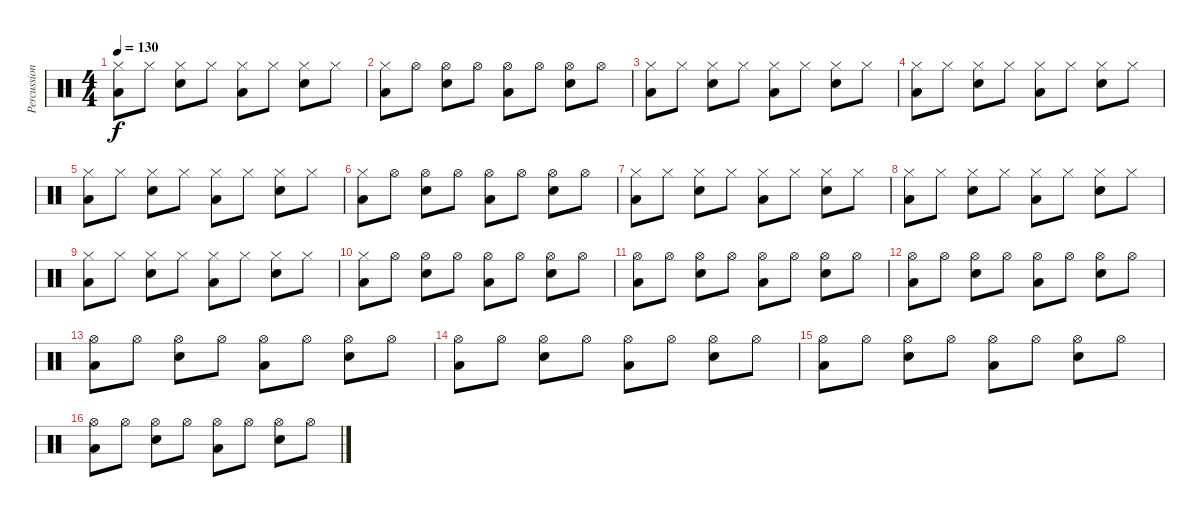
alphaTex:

\track ("Percussion" "Percussion") {instrument percussion}
\staff {score}
\articulation defaults
\ts (4 4)
\tempo 130
\clef neutral
\ks c
("Hi-Hat (closed)" "Low Floor Tom (hit)").8{dy f} "Hi-Hat (closed)".8 ("Hi-Hat (closed)" "Snare (hit) 2").8 "Hi-Hat (closed)".8 ("Hi-Hat (closed)" "Low Floor Tom (hit)").8 "Hi-Hat (closed)".8 ("Hi-Hat (closed)" "Snare (hit) 2").8 "Hi-Hat (closed)".8 |
("Hi-Hat (closed)" "Low Floor Tom (hit)").8 "Hi-Hat (open)".8 ("Hi-Hat (open)" "Snare (hit) 2").8 "Hi-Hat (open)".8 ("Hi-Hat (open)" "Low Floor Tom (hit)").8 "Hi-Hat (open)".8 ("Hi-Hat (open)" "Snare (hit) 2").8 "Hi-Hat (open)".8 |
("Hi-Hat (closed)" "Low Floor Tom (hit)").8 "Hi-Hat (closed)".8 ("Hi-Hat (closed)" "Snare (hit) 2").8 "Hi-Hat (closed)".8 ("Hi-Hat (closed)" "Low Floor Tom (hit)").8 "Hi-Hat (closed)".8 ("Hi-Hat (closed)" "Snare (hit) 2").8 "Hi-Hat (closed)".8 |
("Hi-Hat (closed)" "Low Floor Tom (hit)").8 "Hi-Hat (closed)".8 ("Hi-Hat (closed)" "Snare (hit) 2").8 "Hi-Hat (closed)".8 ("Hi-Hat (closed)" "Low Floor Tom (hit)").8 "Hi-Hat (closed)".8 ("Hi-Hat (closed)" "Snare (hit) 2").8 "Hi-Hat (closed)".8 |
("Hi-Hat (closed)" "Low Floor Tom (hit)").8 "Hi-Hat (closed)".8 ("Hi-Hat (closed)" "Snare (hit) 2").8 "Hi-Hat (closed)".8 ("Hi-Hat (closed)" "Low Floor Tom (hit)").8 "Hi-Hat (closed)".8 ("Hi-Hat (closed)" "Snare (hit) 2").8 "Hi-Hat (closed)".8 |
("Hi-Hat (closed)" "Low Floor Tom (hit)").8 "Hi-Hat (open)".8 ("Hi-Hat (open)" "Snare (hit) 2").8 "Hi-Hat (open)".8 ("Hi-Hat (open)" "Low Floor Tom (hit)").8 "Hi-Hat (open)".8 ("Hi-Hat (open)" "Snare (hit) 2").8 "Hi-Hat (open)".8 |
("Hi-Hat (closed)" "Low Floor Tom (hit)").8 "Hi-Hat (closed)".8 ("Hi-Hat (closed)" "Snare (hit) 2").8 "Hi-Hat (closed)".8 ("Hi-Hat (closed)" "Low Floor Tom (hit)").8 "Hi-Hat (closed)".8 ("Hi-Hat (closed)" "Snare (hit) 2").8 "Hi-Hat (closed)".8 |
("Hi-Hat (closed)" "Low Floor Tom (hit)").8 "Hi-Hat (closed)".8 ("Hi-Hat (closed)" "Snare (hit) 2").8 "Hi-Hat (closed)".8 ("Hi-Hat (closed)" "Low Floor Tom (hit)").8 "Hi-Hat (closed)".8 ("Hi-Hat (closed)" "Snare (hit) 2").8 "Hi-Hat (closed)".8 |
("Hi-Hat (closed)" "Low Floor Tom (hit)").8 "Hi-Hat (closed)".8 ("Hi-Hat (closed)" "Snare (hit) 2").8 "Hi-Hat (closed)".8 ("Hi-Hat (closed)" "Low Floor Tom (hit)").8 "Hi-Hat (closed)".8 ("Hi-Hat (closed)" "Snare (hit) 2").8 "Hi-Hat (closed)".8 |
("Hi-Hat (closed)" "Low Floor Tom (hit)").8 "Hi-Hat (open)".8 ("Hi-Hat (open)" "Snare (hit) 2").8 "Hi-Hat (open)".8 ("Hi-Hat (open)" "Low Floor Tom (hit)").8 "Hi-Hat (open)".8 ("Hi-Hat (open)" "Snare (hit) 2").8 "Hi-Hat (open)".8 |
("Hi-Hat (open)" "Low Floor Tom (hit)").8 "Hi-Hat (open)".8 ("Hi-Hat (open)" "Snare (hit) 2").8 "Hi-Hat (open)".8 ("Hi-Hat (open)" "Low Floor Tom (hit)").8 "Hi-Hat (open)".8 ("Hi-Hat (open)" "Snare (hit) 2").8 "Hi-Hat (open)".8 |
("Hi-Hat (open)" "Low Floor Tom (hit)").8 "Hi-Hat (open)".8 ("Hi-Hat (open)" "Snare (hit) 2").8 "Hi-Hat (open)".8 ("Hi-Hat (open)" "Low Floor Tom (hit)").8 "Hi-Hat (open)".8 ("Hi-Hat (open)" "Snare (hit) 2").8 "Hi-Hat (open)".8 |
("Hi-Hat (open)" "Low Floor Tom (hit)").8 "Hi-Hat (open)".8 ("Hi-Hat (open)" "Snare (hit) 2").8 "Hi-Hat (open)".8 ("Hi-Hat (open)" "Low Floor Tom (hit)").8 "Hi-Hat (open)".8 ("Hi-Hat (open)" "Snare (hit) 2").8 "Hi-Hat (open)".8 |
("Hi-Hat (open)" "Low Floor Tom (hit)").8 "Hi-Hat (open)".8 ("Hi-Hat (open)" "Snare (hit) 2").8 "Hi-Hat (open)".8 ("Hi-Hat (open)" "Low Floor Tom (hit)").8 "Hi-Hat (open)".8 ("Hi-Hat (open)" "Snare (hit) 2").8 "Hi-Hat (open)".8 |
("Hi-Hat (open)" "Low Floor Tom (hit)").8 "Hi-Hat (open)".8 ("Hi-Hat (open)" "Snare (hit) 2").8 "Hi-Hat (open)".8 ("Hi-Hat (open)" "Low Floor Tom (hit)").8 "Hi-Hat (open)".8 ("Hi-Hat (open)" "Snare (hit) 2").8 "Hi-Hat (open)".8 |
("Hi-Hat (open)" "Low Floor Tom (hit)").8 "Hi-Hat (open)".8 ("Hi-Hat (open)" "Snare (hit) 2").8 "Hi-Hat (open)".8 ("Hi-Hat (open)" "Low Floor Tom (hit)").8 "Hi-Hat (open)".8 ("Hi-Hat (open)" "Snare (hit) 2").8 "Hi-Hat (open)".8
